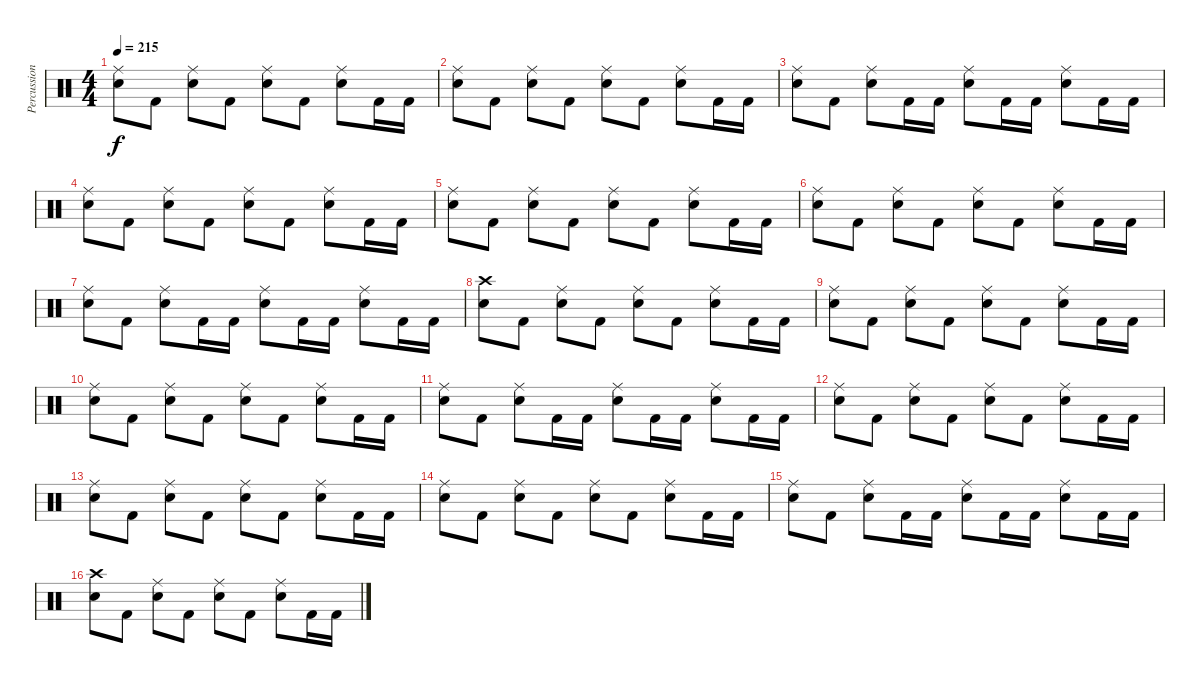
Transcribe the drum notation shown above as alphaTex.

\track ("Percussion" "Percussion") {instrument percussion}
\staff {score}
\articulation defaults
\ts (4 4)
\tempo 215
\clef neutral
\ks aminor
("Ride (middle)" "Snare (hit) 2").8{dy f} "Kick (hit) 2".8 ("Ride (middle)" "Snare (hit) 2").8 "Kick (hit) 2".8 ("Ride (middle)" "Snare (hit) 2").8 "Kick (hit) 2".8 ("Ride (middle)" "Snare (hit) 2").8 "Kick (hit) 2".16 "Kick (hit) 2".16 |
("Ride (middle)" "Snare (hit) 2").8 "Kick (hit) 2".8 ("Ride (middle)" "Snare (hit) 2").8 "Kick (hit) 2".8 ("Ride (middle)" "Snare (hit) 2").8 "Kick (hit) 2".8 ("Ride (middle)" "Snare (hit) 2").8 "Kick (hit) 2".16 "Kick (hit) 2".16 |
("Ride (middle)" "Snare (hit) 2").8 "Kick (hit) 2".8 ("Ride (middle)" "Snare (hit) 2").8 "Kick (hit) 2".16 "Kick (hit) 2".16 ("Ride (middle)" "Snare (hit) 2").8 "Kick (hit) 2".16 "Kick (hit) 2".16 ("Ride (middle)" "Snare (hit) 2").8 "Kick (hit) 2".16 "Kick (hit) 2".16 |
("Ride (middle)" "Snare (hit) 2").8 "Kick (hit) 2".8 ("Ride (middle)" "Snare (hit) 2").8 "Kick (hit) 2".8 ("Ride (middle)" "Snare (hit) 2").8 "Kick (hit) 2".8 ("Ride (middle)" "Snare (hit) 2").8 "Kick (hit) 2".16 "Kick (hit) 2".16 |
("Ride (middle)" "Snare (hit) 2").8 "Kick (hit) 2".8 ("Ride (middle)" "Snare (hit) 2").8 "Kick (hit) 2".8 ("Ride (middle)" "Snare (hit) 2").8 "Kick (hit) 2".8 ("Ride (middle)" "Snare (hit) 2").8 "Kick (hit) 2".16 "Kick (hit) 2".16 |
("Ride (middle)" "Snare (hit) 2").8 "Kick (hit) 2".8 ("Ride (middle)" "Snare (hit) 2").8 "Kick (hit) 2".8 ("Ride (middle)" "Snare (hit) 2").8 "Kick (hit) 2".8 ("Ride (middle)" "Snare (hit) 2").8 "Kick (hit) 2".16 "Kick (hit) 2".16 |
("Ride (middle)" "Snare (hit) 2").8 "Kick (hit) 2".8 ("Ride (middle)" "Snare (hit) 2").8 "Kick (hit) 2".16 "Kick (hit) 2".16 ("Ride (middle)" "Snare (hit) 2").8 "Kick (hit) 2".16 "Kick (hit) 2".16 ("Ride (middle)" "Snare (hit) 2").8 "Kick (hit) 2".16 "Kick (hit) 2".16 |
("Crash high (hit)" "Snare (hit) 2").8 "Kick (hit) 2".8 ("Ride (middle)" "Snare (hit) 2").8 "Kick (hit) 2".8 ("Ride (middle)" "Snare (hit) 2").8 "Kick (hit) 2".8 ("Ride (middle)" "Snare (hit) 2").8 "Kick (hit) 2".16 "Kick (hit) 2".16 |
("Ride (middle)" "Snare (hit) 2").8 "Kick (hit) 2".8 ("Ride (middle)" "Snare (hit) 2").8 "Kick (hit) 2".8 ("Ride (middle)" "Snare (hit) 2").8 "Kick (hit) 2".8 ("Ride (middle)" "Snare (hit) 2").8 "Kick (hit) 2".16 "Kick (hit) 2".16 |
("Ride (middle)" "Snare (hit) 2").8 "Kick (hit) 2".8 ("Ride (middle)" "Snare (hit) 2").8 "Kick (hit) 2".8 ("Ride (middle)" "Snare (hit) 2").8 "Kick (hit) 2".8 ("Ride (middle)" "Snare (hit) 2").8 "Kick (hit) 2".16 "Kick (hit) 2".16 |
("Ride (middle)" "Snare (hit) 2").8 "Kick (hit) 2".8 ("Ride (middle)" "Snare (hit) 2").8 "Kick (hit) 2".16 "Kick (hit) 2".16 ("Ride (middle)" "Snare (hit) 2").8 "Kick (hit) 2".16 "Kick (hit) 2".16 ("Ride (middle)" "Snare (hit) 2").8 "Kick (hit) 2".16 "Kick (hit) 2".16 |
("Ride (middle)" "Snare (hit) 2").8 "Kick (hit) 2".8 ("Ride (middle)" "Snare (hit) 2").8 "Kick (hit) 2".8 ("Ride (middle)" "Snare (hit) 2").8 "Kick (hit) 2".8 ("Ride (middle)" "Snare (hit) 2").8 "Kick (hit) 2".16 "Kick (hit) 2".16 |
("Ride (middle)" "Snare (hit) 2").8 "Kick (hit) 2".8 ("Ride (middle)" "Snare (hit) 2").8 "Kick (hit) 2".8 ("Ride (middle)" "Snare (hit) 2").8 "Kick (hit) 2".8 ("Ride (middle)" "Snare (hit) 2").8 "Kick (hit) 2".16 "Kick (hit) 2".16 |
("Ride (middle)" "Snare (hit) 2").8 "Kick (hit) 2".8 ("Ride (middle)" "Snare (hit) 2").8 "Kick (hit) 2".8 ("Ride (middle)" "Snare (hit) 2").8 "Kick (hit) 2".8 ("Ride (middle)" "Snare (hit) 2").8 "Kick (hit) 2".16 "Kick (hit) 2".16 |
("Ride (middle)" "Snare (hit) 2").8 "Kick (hit) 2".8 ("Ride (middle)" "Snare (hit) 2").8 "Kick (hit) 2".16 "Kick (hit) 2".16 ("Ride (middle)" "Snare (hit) 2").8 "Kick (hit) 2".16 "Kick (hit) 2".16 ("Ride (middle)" "Snare (hit) 2").8 "Kick (hit) 2".16 "Kick (hit) 2".16 |
("Crash high (hit)" "Snare (hit) 2").8 "Kick (hit) 2".8 ("Ride (middle)" "Snare (hit) 2").8 "Kick (hit) 2".8 ("Ride (middle)" "Snare (hit) 2").8 "Kick (hit) 2".8 ("Ride (middle)" "Snare (hit) 2").8 "Kick (hit) 2".16 "Kick (hit) 2".16
